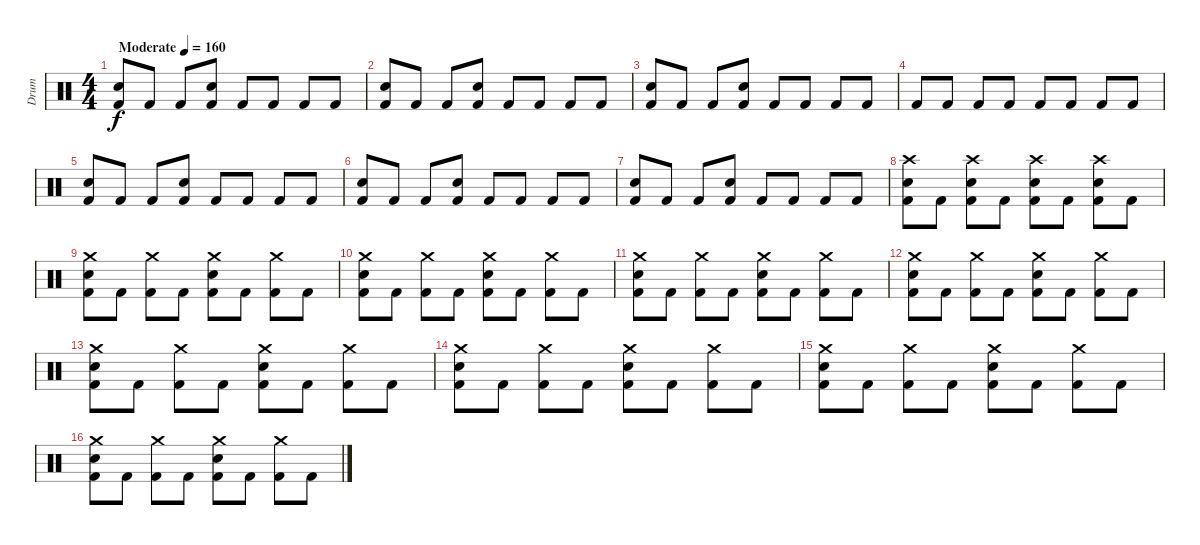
\track ("Drum" "Drum") {instrument percussion}
\staff {score}
\articulation defaults
\ts (4 4)
\tempo (160 "Moderate")
\clef neutral
\ks c
("Electric Snare (hit)" "Kick (hit) 2").8{dy f} "Kick (hit) 2".8 "Kick (hit) 2".8 ("Electric Snare (hit)" "Kick (hit) 2").8 "Kick (hit) 2".8 "Kick (hit) 2".8 "Kick (hit) 2".8 "Kick (hit) 2".8 |
("Electric Snare (hit)" "Kick (hit) 2").8 "Kick (hit) 2".8 "Kick (hit) 2".8 ("Electric Snare (hit)" "Kick (hit) 2").8 "Kick (hit) 2".8 "Kick (hit) 2".8 "Kick (hit) 2".8 "Kick (hit) 2".8 |
("Electric Snare (hit)" "Kick (hit) 2").8 "Kick (hit) 2".8 "Kick (hit) 2".8 ("Electric Snare (hit)" "Kick (hit) 2").8 "Kick (hit) 2".8 "Kick (hit) 2".8 "Kick (hit) 2".8 "Kick (hit) 2".8 |
"Kick (hit) 2".8 "Kick (hit) 2".8 "Kick (hit) 2".8 "Kick (hit) 2".8 "Kick (hit) 2".8 "Kick (hit) 2".8 "Kick (hit) 2".8 "Kick (hit) 2".8 |
("Electric Snare (hit)" "Kick (hit) 2").8 "Kick (hit) 2".8 "Kick (hit) 2".8 ("Electric Snare (hit)" "Kick (hit) 2").8 "Kick (hit) 2".8 "Kick (hit) 2".8 "Kick (hit) 2".8 "Kick (hit) 2".8 |
("Electric Snare (hit)" "Kick (hit) 2").8 "Kick (hit) 2".8 "Kick (hit) 2".8 ("Electric Snare (hit)" "Kick (hit) 2").8 "Kick (hit) 2".8 "Kick (hit) 2".8 "Kick (hit) 2".8 "Kick (hit) 2".8 |
("Electric Snare (hit)" "Kick (hit) 2").8 "Kick (hit) 2".8 "Kick (hit) 2".8 ("Electric Snare (hit)" "Kick (hit) 2").8 "Kick (hit) 2".8 "Kick (hit) 2".8 "Kick (hit) 2".8 "Kick (hit) 2".8 |
("Crash high (hit)" "Electric Snare (hit)" "Kick (hit) 2").8 "Kick (hit) 2".8 ("Crash high (hit)" "Electric Snare (hit)" "Kick (hit) 2").8 "Kick (hit) 2".8 ("Crash high (hit)" "Electric Snare (hit)" "Kick (hit) 2").8 "Kick (hit) 2".8 ("Crash high (hit)" "Electric Snare (hit)" "Kick (hit) 2").8 "Kick (hit) 2".8 |
("Crash medium (hit)" "Electric Snare (hit)" "Kick (hit) 2").8 "Kick (hit) 2".8 ("Crash medium (hit)" "Kick (hit) 2").8 "Kick (hit) 2".8 ("Crash medium (hit)" "Electric Snare (hit)" "Kick (hit) 2").8 "Kick (hit) 2".8 ("Crash medium (hit)" "Kick (hit) 2").8 "Kick (hit) 2".8 |
("Crash medium (hit)" "Electric Snare (hit)" "Kick (hit) 2").8 "Kick (hit) 2".8 ("Crash medium (hit)" "Kick (hit) 2").8 "Kick (hit) 2".8 ("Crash medium (hit)" "Electric Snare (hit)" "Kick (hit) 2").8 "Kick (hit) 2".8 ("Crash medium (hit)" "Kick (hit) 2").8 "Kick (hit) 2".8 |
("Crash medium (hit)" "Electric Snare (hit)" "Kick (hit) 2").8 "Kick (hit) 2".8 ("Crash medium (hit)" "Kick (hit) 2").8 "Kick (hit) 2".8 ("Crash medium (hit)" "Electric Snare (hit)" "Kick (hit) 2").8 "Kick (hit) 2".8 ("Crash medium (hit)" "Kick (hit) 2").8 "Kick (hit) 2".8 |
("Crash medium (hit)" "Electric Snare (hit)" "Kick (hit) 2").8 "Kick (hit) 2".8 ("Crash medium (hit)" "Kick (hit) 2").8 "Kick (hit) 2".8 ("Crash medium (hit)" "Electric Snare (hit)" "Kick (hit) 2").8 "Kick (hit) 2".8 ("Crash medium (hit)" "Kick (hit) 2").8 "Kick (hit) 2".8 |
("Crash medium (hit)" "Electric Snare (hit)" "Kick (hit) 2").8 "Kick (hit) 2".8 ("Crash medium (hit)" "Kick (hit) 2").8 "Kick (hit) 2".8 ("Crash medium (hit)" "Electric Snare (hit)" "Kick (hit) 2").8 "Kick (hit) 2".8 ("Crash medium (hit)" "Kick (hit) 2").8 "Kick (hit) 2".8 |
("Crash medium (hit)" "Electric Snare (hit)" "Kick (hit) 2").8 "Kick (hit) 2".8 ("Crash medium (hit)" "Kick (hit) 2").8 "Kick (hit) 2".8 ("Crash medium (hit)" "Electric Snare (hit)" "Kick (hit) 2").8 "Kick (hit) 2".8 ("Crash medium (hit)" "Kick (hit) 2").8 "Kick (hit) 2".8 |
("Crash medium (hit)" "Electric Snare (hit)" "Kick (hit) 2").8 "Kick (hit) 2".8 ("Crash medium (hit)" "Kick (hit) 2").8 "Kick (hit) 2".8 ("Crash medium (hit)" "Electric Snare (hit)" "Kick (hit) 2").8 "Kick (hit) 2".8 ("Crash medium (hit)" "Kick (hit) 2").8 "Kick (hit) 2".8 |
("Crash medium (hit)" "Electric Snare (hit)" "Kick (hit) 2").8 "Kick (hit) 2".8 ("Crash medium (hit)" "Kick (hit) 2").8 "Kick (hit) 2".8 ("Crash medium (hit)" "Electric Snare (hit)" "Kick (hit) 2").8 "Kick (hit) 2".8 ("Crash medium (hit)" "Kick (hit) 2").8 "Kick (hit) 2".8
